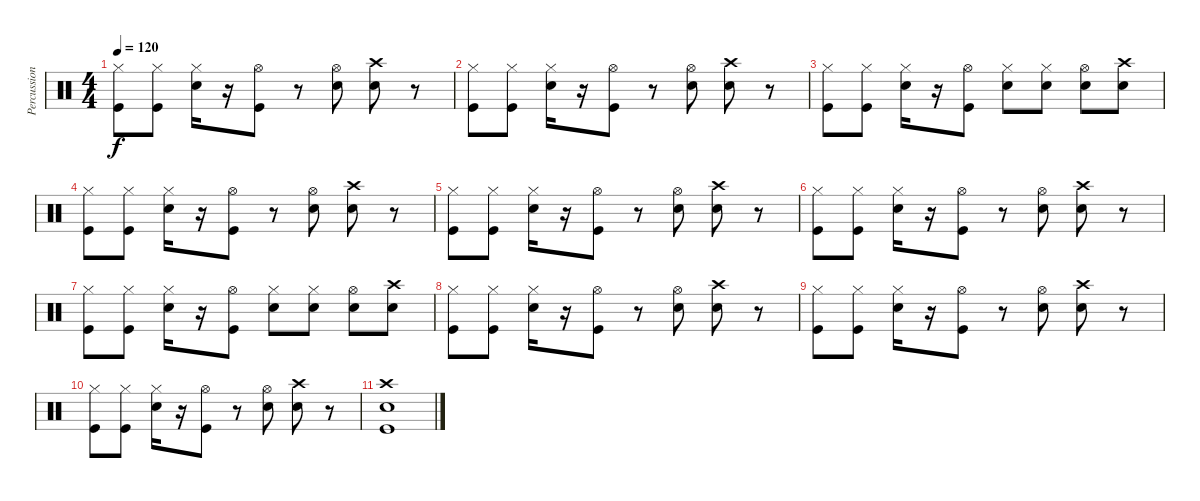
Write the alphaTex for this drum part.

\track ("Percussion" "Percussion") {instrument percussion}
\staff {score}
\articulation defaults
\ts (4 4)
\tempo 120
\clef neutral
\ks c
("Hi-Hat (closed)" "Kick (hit)").8{dy f} ("Hi-Hat (closed)" "Kick (hit)").8 ("Hi-Hat (closed)" "Snare (hit) 2").16 r.16 ("Hi-Hat (open)" "Kick (hit)").8 r.8 ("Hi-Hat (open)" "Snare (hit) 2").8 ("Crash high (hit)" "Snare (hit) 2").8 r.8 |
("Hi-Hat (closed)" "Kick (hit)").8 ("Hi-Hat (closed)" "Kick (hit)").8 ("Hi-Hat (closed)" "Snare (hit) 2").16 r.16 ("Hi-Hat (open)" "Kick (hit)").8 r.8 ("Hi-Hat (open)" "Snare (hit) 2").8 ("Crash high (hit)" "Snare (hit) 2").8 r.8 |
("Hi-Hat (closed)" "Kick (hit)").8 ("Hi-Hat (closed)" "Kick (hit)").8 ("Hi-Hat (closed)" "Snare (hit) 2").16 r.16 ("Hi-Hat (open)" "Kick (hit)").8 ("Hi-Hat (closed)" "Electric Snare (hit)").8 ("Hi-Hat (closed)" "Electric Snare (hit)").8 ("Hi-Hat (open)" "Snare (hit) 2").8 ("Crash high (hit)" "Snare (hit) 2").8 |
("Hi-Hat (closed)" "Kick (hit)").8 ("Hi-Hat (closed)" "Kick (hit)").8 ("Hi-Hat (closed)" "Snare (hit) 2").16 r.16 ("Hi-Hat (open)" "Kick (hit)").8 r.8 ("Hi-Hat (open)" "Snare (hit) 2").8 ("Crash high (hit)" "Snare (hit) 2").8 r.8 |
("Hi-Hat (closed)" "Kick (hit)").8 ("Hi-Hat (closed)" "Kick (hit)").8 ("Hi-Hat (closed)" "Snare (hit) 2").16 r.16 ("Hi-Hat (open)" "Kick (hit)").8 r.8 ("Hi-Hat (open)" "Snare (hit) 2").8 ("Crash high (hit)" "Snare (hit) 2").8 r.8 |
("Hi-Hat (closed)" "Kick (hit)").8 ("Hi-Hat (closed)" "Kick (hit)").8 ("Hi-Hat (closed)" "Snare (hit) 2").16 r.16 ("Hi-Hat (open)" "Kick (hit)").8 r.8 ("Hi-Hat (open)" "Snare (hit) 2").8 ("Crash high (hit)" "Snare (hit) 2").8 r.8 |
("Hi-Hat (closed)" "Kick (hit)").8 ("Hi-Hat (closed)" "Kick (hit)").8 ("Hi-Hat (closed)" "Snare (hit) 2").16 r.16 ("Hi-Hat (open)" "Kick (hit)").8 ("Hi-Hat (closed)" "Electric Snare (hit)").8 ("Hi-Hat (closed)" "Electric Snare (hit)").8 ("Hi-Hat (open)" "Snare (hit) 2").8 ("Crash high (hit)" "Snare (hit) 2").8 |
("Hi-Hat (closed)" "Kick (hit)").8 ("Hi-Hat (closed)" "Kick (hit)").8 ("Hi-Hat (closed)" "Snare (hit) 2").16 r.16 ("Hi-Hat (open)" "Kick (hit)").8 r.8 ("Hi-Hat (open)" "Snare (hit) 2").8 ("Crash high (hit)" "Snare (hit) 2").8 r.8 |
("Hi-Hat (closed)" "Kick (hit)").8 ("Hi-Hat (closed)" "Kick (hit)").8 ("Hi-Hat (closed)" "Snare (hit) 2").16 r.16 ("Hi-Hat (open)" "Kick (hit)").8 r.8 ("Hi-Hat (open)" "Snare (hit) 2").8 ("Crash high (hit)" "Snare (hit) 2").8 r.8 |
("Hi-Hat (closed)" "Kick (hit)").8 ("Hi-Hat (closed)" "Kick (hit)").8 ("Hi-Hat (closed)" "Snare (hit) 2").16 r.16 ("Hi-Hat (open)" "Kick (hit)").8 r.8 ("Hi-Hat (open)" "Snare (hit) 2").8 ("Crash high (hit)" "Snare (hit) 2").8 r.8 |
("Crash high (hit)" "Snare (hit) 2" "Kick (hit)").1
